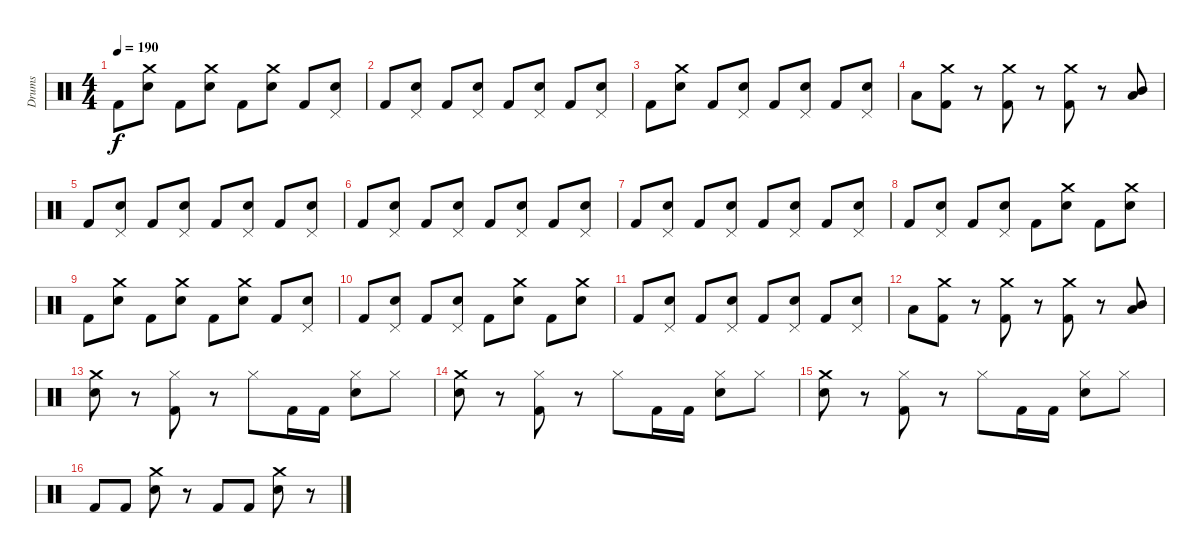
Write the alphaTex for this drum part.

\track ("Drums" "Drums") {instrument percussion}
\staff {score}
\articulation defaults
\ts (4 4)
\tempo 190
\clef neutral
\ks c "Kick (hit) 2".8{dy f}
("Snare (hit) 2" "Crash medium (hit)").8 "Kick (hit) 2".8 ("Snare (hit) 2" "Crash medium (hit)").8 "Kick (hit) 2".8 ("Snare (hit) 2" "Crash medium (hit)").8 "Kick (hit) 2".8 ("Snare (hit) 2" "Pedal Hi-Hat (hit)").8 |
"Kick (hit) 2".8 ("Snare (hit) 2" "Pedal Hi-Hat (hit)").8 "Kick (hit) 2".8 ("Snare (hit) 2" "Pedal Hi-Hat (hit)").8 "Kick (hit) 2".8 ("Snare (hit) 2" "Pedal Hi-Hat (hit)").8 "Kick (hit) 2".8 ("Snare (hit) 2" "Pedal Hi-Hat (hit)").8 |
"Kick (hit) 2".8 ("Snare (hit) 2" "Crash medium (hit)").8 "Kick (hit) 2".8 ("Snare (hit) 2" "Pedal Hi-Hat (hit)").8 "Kick (hit) 2".8 ("Snare (hit) 2" "Pedal Hi-Hat (hit)").8 "Kick (hit) 2".8 ("Snare (hit) 2" "Pedal Hi-Hat (hit)").8 |
"Low Tom (hit)".8 ("Kick (hit) 2" "Crash medium (hit)").8 r.8 ("Kick (hit) 2" "Crash medium (hit)").8 r.8 ("Kick (hit) 2" "Crash medium (hit)").8 r.8 ("Low Tom (hit)" "Mid Tom (hit)").8{bd 120} |
"Kick (hit) 2".8 ("Snare (hit) 2" "Pedal Hi-Hat (hit)").8 "Kick (hit) 2".8 ("Snare (hit) 2" "Pedal Hi-Hat (hit)").8 "Kick (hit) 2".8 ("Snare (hit) 2" "Pedal Hi-Hat (hit)").8 "Kick (hit) 2".8 ("Snare (hit) 2" "Pedal Hi-Hat (hit)").8 |
"Kick (hit) 2".8 ("Snare (hit) 2" "Pedal Hi-Hat (hit)").8 "Kick (hit) 2".8 ("Snare (hit) 2" "Pedal Hi-Hat (hit)").8 "Kick (hit) 2".8 ("Snare (hit) 2" "Pedal Hi-Hat (hit)").8 "Kick (hit) 2".8 ("Snare (hit) 2" "Pedal Hi-Hat (hit)").8 |
"Kick (hit) 2".8 ("Snare (hit) 2" "Pedal Hi-Hat (hit)").8 "Kick (hit) 2".8 ("Snare (hit) 2" "Pedal Hi-Hat (hit)").8 "Kick (hit) 2".8 ("Snare (hit) 2" "Pedal Hi-Hat (hit)").8 "Kick (hit) 2".8 ("Snare (hit) 2" "Pedal Hi-Hat (hit)").8 |
"Kick (hit) 2".8 ("Snare (hit) 2" "Pedal Hi-Hat (hit)").8 "Kick (hit) 2".8 ("Snare (hit) 2" "Pedal Hi-Hat (hit)").8 "Kick (hit) 2".8 ("Snare (hit) 2" "Crash medium (hit)").8 "Kick (hit) 2".8 ("Snare (hit) 2" "Crash medium (hit)").8 |
"Kick (hit) 2".8 ("Snare (hit) 2" "Crash medium (hit)").8 "Kick (hit) 2".8 ("Snare (hit) 2" "Crash medium (hit)").8 "Kick (hit) 2".8 ("Snare (hit) 2" "Crash medium (hit)").8 "Kick (hit) 2".8 ("Snare (hit) 2" "Pedal Hi-Hat (hit)").8 |
"Kick (hit) 2".8 ("Snare (hit) 2" "Pedal Hi-Hat (hit)").8 "Kick (hit) 2".8 ("Snare (hit) 2" "Pedal Hi-Hat (hit)").8 "Kick (hit) 2".8 ("Snare (hit) 2" "Crash medium (hit)").8 "Kick (hit) 2".8 ("Snare (hit) 2" "Crash medium (hit)").8 |
"Kick (hit) 2".8 ("Snare (hit) 2" "Pedal Hi-Hat (hit)").8 "Kick (hit) 2".8 ("Snare (hit) 2" "Pedal Hi-Hat (hit)").8 "Kick (hit) 2".8 ("Snare (hit) 2" "Pedal Hi-Hat (hit)").8 "Kick (hit) 2".8 ("Snare (hit) 2" "Pedal Hi-Hat (hit)").8 |
"Low Tom (hit)".8 ("Kick (hit) 2" "Crash medium (hit)").8 r.8 ("Kick (hit) 2" "Crash medium (hit)").8 r.8 ("Kick (hit) 2" "Crash medium (hit)").8 r.8 ("Low Tom (hit)" "Mid Tom (hit)").8{bd 120} |
("Snare (hit) 2" "Crash medium (hit)").8 r.8 ("Kick (hit) 2" "Hi-Hat (closed)").8 r.8 "Hi-Hat (closed)".8 "Kick (hit) 2".16 "Kick (hit) 2".16 ("Snare (hit) 2" "Hi-Hat (closed)").8 "Hi-Hat (closed)".8 |
("Snare (hit) 2" "Crash medium (hit)").8 r.8 ("Kick (hit) 2" "Hi-Hat (closed)").8 r.8 "Hi-Hat (closed)".8 "Kick (hit) 2".16 "Kick (hit) 2".16 ("Snare (hit) 2" "Hi-Hat (closed)").8 "Hi-Hat (closed)".8 |
("Snare (hit) 2" "Crash medium (hit)").8 r.8 ("Kick (hit) 2" "Hi-Hat (closed)").8 r.8 "Hi-Hat (closed)".8 "Kick (hit) 2".16 "Kick (hit) 2".16 ("Snare (hit) 2" "Hi-Hat (closed)").8 "Hi-Hat (closed)".8 |
"Kick (hit) 2".8 "Kick (hit) 2".8 ("Snare (hit) 2" "Crash medium (hit)").8 r.8 "Kick (hit) 2".8 "Kick (hit) 2".8 ("Snare (hit) 2" "Crash medium (hit)").8 r.8
